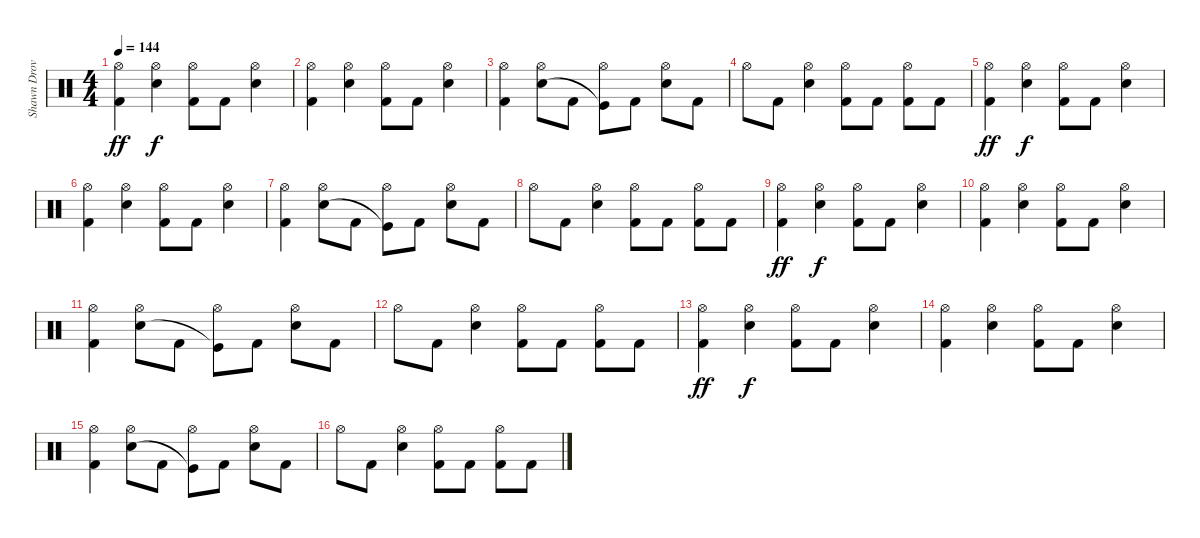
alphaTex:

\track ("Shawn Drover" "Shawn Drov") {instrument percussion}
\staff {score}
\articulation defaults
\ts (4 4)
\tempo 144
\clef neutral
\ks c
("Hi-Hat (open)" "Kick (hit) 2").4{dy ff} ("Hi-Hat (open)" "Electric Snare (hit)").4{dy f} ("Hi-Hat (open)" "Kick (hit) 2").8 "Kick (hit) 2".8 ("Hi-Hat (open)" "Electric Snare (hit)").4 |
("Hi-Hat (open)" "Kick (hit) 2").4 ("Hi-Hat (open)" "Electric Snare (hit)").4 ("Hi-Hat (open)" "Kick (hit) 2").8 "Kick (hit) 2".8 ("Hi-Hat (open)" "Electric Snare (hit)").4 |
("Hi-Hat (open)" "Kick (hit) 2").4 ("Hi-Hat (open)" "Electric Snare (hit)").8 "Kick (hit) 2".8 ("Hi-Hat (open)" "Kick (hit)"{t}).8 "Kick (hit) 2".8 ("Hi-Hat (open)" "Electric Snare (hit)").8 "Kick (hit) 2".8 |
"Hi-Hat (open)".8 "Kick (hit) 2".8 ("Hi-Hat (open)" "Electric Snare (hit)").4 ("Hi-Hat (open)" "Kick (hit) 2").8 "Kick (hit) 2".8 ("Hi-Hat (open)" "Kick (hit) 2").8 "Kick (hit) 2".8 |
("Hi-Hat (open)" "Kick (hit) 2").4{dy ff} ("Hi-Hat (open)" "Electric Snare (hit)").4{dy f} ("Hi-Hat (open)" "Kick (hit) 2").8 "Kick (hit) 2".8 ("Hi-Hat (open)" "Electric Snare (hit)").4 |
("Hi-Hat (open)" "Kick (hit) 2").4 ("Hi-Hat (open)" "Electric Snare (hit)").4 ("Hi-Hat (open)" "Kick (hit) 2").8 "Kick (hit) 2".8 ("Hi-Hat (open)" "Electric Snare (hit)").4 |
("Hi-Hat (open)" "Kick (hit) 2").4 ("Hi-Hat (open)" "Electric Snare (hit)").8 "Kick (hit) 2".8 ("Hi-Hat (open)" "Kick (hit)"{t}).8 "Kick (hit) 2".8 ("Hi-Hat (open)" "Electric Snare (hit)").8 "Kick (hit) 2".8 |
"Hi-Hat (open)".8 "Kick (hit) 2".8 ("Hi-Hat (open)" "Electric Snare (hit)").4 ("Hi-Hat (open)" "Kick (hit) 2").8 "Kick (hit) 2".8 ("Hi-Hat (open)" "Kick (hit) 2").8 "Kick (hit) 2".8 |
("Hi-Hat (open)" "Kick (hit) 2").4{dy ff} ("Hi-Hat (open)" "Electric Snare (hit)").4{dy f} ("Hi-Hat (open)" "Kick (hit) 2").8 "Kick (hit) 2".8 ("Hi-Hat (open)" "Electric Snare (hit)").4 |
("Hi-Hat (open)" "Kick (hit) 2").4 ("Hi-Hat (open)" "Electric Snare (hit)").4 ("Hi-Hat (open)" "Kick (hit) 2").8 "Kick (hit) 2".8 ("Hi-Hat (open)" "Electric Snare (hit)").4 |
("Hi-Hat (open)" "Kick (hit) 2").4 ("Hi-Hat (open)" "Electric Snare (hit)").8 "Kick (hit) 2".8 ("Hi-Hat (open)" "Kick (hit)"{t}).8 "Kick (hit) 2".8 ("Hi-Hat (open)" "Electric Snare (hit)").8 "Kick (hit) 2".8 |
"Hi-Hat (open)".8 "Kick (hit) 2".8 ("Hi-Hat (open)" "Electric Snare (hit)").4 ("Hi-Hat (open)" "Kick (hit) 2").8 "Kick (hit) 2".8 ("Hi-Hat (open)" "Kick (hit) 2").8 "Kick (hit) 2".8 |
("Hi-Hat (open)" "Kick (hit) 2").4{dy ff} ("Hi-Hat (open)" "Electric Snare (hit)").4{dy f} ("Hi-Hat (open)" "Kick (hit) 2").8 "Kick (hit) 2".8 ("Hi-Hat (open)" "Electric Snare (hit)").4 |
("Hi-Hat (open)" "Kick (hit) 2").4 ("Hi-Hat (open)" "Electric Snare (hit)").4 ("Hi-Hat (open)" "Kick (hit) 2").8 "Kick (hit) 2".8 ("Hi-Hat (open)" "Electric Snare (hit)").4 |
("Hi-Hat (open)" "Kick (hit) 2").4 ("Hi-Hat (open)" "Electric Snare (hit)").8 "Kick (hit) 2".8 ("Hi-Hat (open)" "Kick (hit)"{t}).8 "Kick (hit) 2".8 ("Hi-Hat (open)" "Electric Snare (hit)").8 "Kick (hit) 2".8 |
"Hi-Hat (open)".8 "Kick (hit) 2".8 ("Hi-Hat (open)" "Electric Snare (hit)").4 ("Hi-Hat (open)" "Kick (hit) 2").8 "Kick (hit) 2".8 ("Hi-Hat (open)" "Kick (hit) 2").8 "Kick (hit) 2".8
